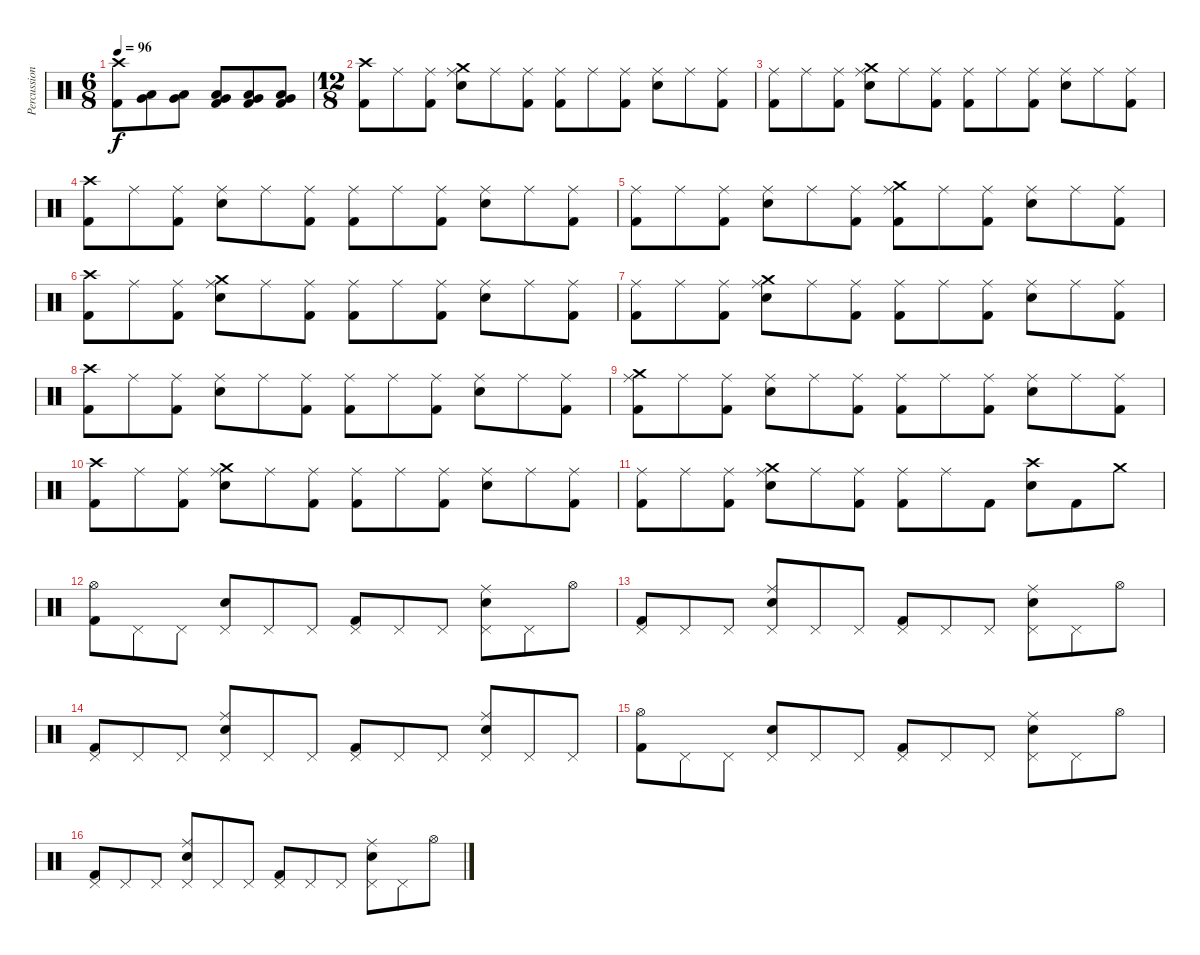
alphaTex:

\track ("Percussion" "Percussion") {instrument percussion}
\staff {score}
\articulation defaults
\ts (6 8)
\tempo 96
\clef neutral
\ks c
("Crash high (hit)" "Kick (hit) 2").8{dy f} ("Low Tom (hit)" "Very Low Tom (hit)").8 ("Low Tom (hit)" "Very Low Tom (hit)").8 ("Low Tom (hit)" "Very Low Tom (hit)" "Kick (hit) 2").8 ("Very Low Tom (hit)" "Low Floor Tom (hit)" "Kick (hit) 2").8 ("Very Low Tom (hit)" "Low Floor Tom (hit)" "Kick (hit) 2").8 |
\ts (12 8)
("Crash high (hit)" "Kick (hit) 2").8 "Ride (middle)".8 ("Ride (middle)" "Kick (hit) 2").8 ("Crash medium (hit)" "Ride (middle)" "Electric Snare (hit)").8 "Ride (middle)".8 ("Ride (middle)" "Kick (hit) 2").8 ("Ride (middle)" "Kick (hit) 2").8 "Ride (middle)".8 ("Ride (middle)" "Kick (hit) 2").8 ("Ride (middle)" "Electric Snare (hit)").8 "Ride (middle)".8 ("Ride (middle)" "Kick (hit) 2").8 |
("Ride (middle)" "Kick (hit) 2").8 "Ride (middle)".8 ("Ride (middle)" "Kick (hit) 2").8 ("Crash medium (hit)" "Ride (middle)" "Electric Snare (hit)").8 "Ride (middle)".8 ("Ride (middle)" "Kick (hit) 2").8 ("Ride (middle)" "Kick (hit) 2").8 "Ride (middle)".8 ("Ride (middle)" "Kick (hit) 2").8 ("Ride (middle)" "Electric Snare (hit)").8 "Ride (middle)".8 ("Ride (middle)" "Kick (hit) 2").8 |
("Crash high (hit)" "Kick (hit) 2").8 "Ride (middle)".8 ("Ride (middle)" "Kick (hit) 2").8 ("Ride (middle)" "Electric Snare (hit)").8 "Ride (middle)".8 ("Ride (middle)" "Kick (hit) 2").8 ("Ride (middle)" "Kick (hit) 2").8 "Ride (middle)".8 ("Ride (middle)" "Kick (hit) 2").8 ("Ride (middle)" "Electric Snare (hit)").8 "Ride (middle)".8 ("Ride (middle)" "Kick (hit) 2").8 |
("Ride (middle)" "Kick (hit) 2").8 "Ride (middle)".8 ("Ride (middle)" "Kick (hit) 2").8 ("Ride (middle)" "Electric Snare (hit)").8 "Ride (middle)".8 ("Ride (middle)" "Kick (hit) 2").8 ("Crash medium (hit)" "Ride (middle)" "Kick (hit) 2").8 "Ride (middle)".8 ("Ride (middle)" "Kick (hit) 2").8 ("Ride (middle)" "Electric Snare (hit)").8 "Ride (middle)".8 ("Ride (middle)" "Kick (hit) 2").8 |
("Crash high (hit)" "Kick (hit) 2").8 "Ride (middle)".8 ("Ride (middle)" "Kick (hit) 2").8 ("Crash medium (hit)" "Ride (middle)" "Electric Snare (hit)").8 "Ride (middle)".8 ("Ride (middle)" "Kick (hit) 2").8 ("Ride (middle)" "Kick (hit) 2").8 "Ride (middle)".8 ("Ride (middle)" "Kick (hit) 2").8 ("Ride (middle)" "Electric Snare (hit)").8 "Ride (middle)".8 ("Ride (middle)" "Kick (hit) 2").8 |
("Ride (middle)" "Kick (hit) 2").8 "Ride (middle)".8 ("Ride (middle)" "Kick (hit) 2").8 ("Crash medium (hit)" "Ride (middle)" "Electric Snare (hit)").8 "Ride (middle)".8 ("Ride (middle)" "Kick (hit) 2").8 ("Ride (middle)" "Kick (hit) 2").8 "Ride (middle)".8 ("Ride (middle)" "Kick (hit) 2").8 ("Ride (middle)" "Electric Snare (hit)").8 "Ride (middle)".8 ("Ride (middle)" "Kick (hit) 2").8 |
("Crash high (hit)" "Kick (hit) 2").8 "Ride (middle)".8 ("Ride (middle)" "Kick (hit) 2").8 ("Ride (middle)" "Electric Snare (hit)").8 "Ride (middle)".8 ("Ride (middle)" "Kick (hit) 2").8 ("Ride (middle)" "Kick (hit) 2").8 "Ride (middle)".8 ("Ride (middle)" "Kick (hit) 2").8 ("Ride (middle)" "Electric Snare (hit)").8 "Ride (middle)".8 ("Ride (middle)" "Kick (hit) 2").8 |
("Crash medium (hit)" "Ride (middle)" "Kick (hit) 2").8 "Ride (middle)".8 ("Ride (middle)" "Kick (hit) 2").8 ("Ride (middle)" "Electric Snare (hit)").8 "Ride (middle)".8 ("Ride (middle)" "Kick (hit) 2").8 ("Ride (middle)" "Kick (hit) 2").8 "Ride (middle)".8 ("Ride (middle)" "Kick (hit) 2").8 ("Ride (middle)" "Electric Snare (hit)").8 "Ride (middle)".8 ("Ride (middle)" "Kick (hit) 2").8 |
("Crash high (hit)" "Kick (hit) 2").8 "Ride (middle)".8 ("Ride (middle)" "Kick (hit) 2").8 ("Crash medium (hit)" "Ride (middle)" "Electric Snare (hit)").8 "Ride (middle)".8 ("Ride (middle)" "Kick (hit) 2").8 ("Ride (middle)" "Kick (hit) 2").8 "Ride (middle)".8 ("Ride (middle)" "Kick (hit) 2").8 ("Ride (middle)" "Electric Snare (hit)").8 "Ride (middle)".8 ("Ride (middle)" "Kick (hit) 2").8 |
("Ride (middle)" "Kick (hit) 2").8 "Ride (middle)".8 ("Ride (middle)" "Kick (hit) 2").8 ("Crash medium (hit)" "Ride (middle)" "Electric Snare (hit)").8 "Ride (middle)".8 ("Ride (middle)" "Kick (hit) 2").8 ("Ride (middle)" "Kick (hit) 2").8 "Ride (middle)".8 "Kick (hit) 2".8 ("Crash high (hit)" "Electric Snare (hit)").8 "Kick (hit) 2".8 "Crash medium (hit)".8 |
("Hi-Hat (open)" "Kick (hit) 2").8 "Pedal Hi-Hat (hit)".8 "Pedal Hi-Hat (hit)".8 ("Pedal Hi-Hat (hit)" "Electric Snare (hit)").8 "Pedal Hi-Hat (hit)".8 "Pedal Hi-Hat (hit)".8 ("Pedal Hi-Hat (hit)" "Kick (hit) 2").8 "Pedal Hi-Hat (hit)".8 "Pedal Hi-Hat (hit)".8 ("Pedal Hi-Hat (hit)" "Ride (middle)" "Electric Snare (hit)").8 "Pedal Hi-Hat (hit)".8 "Hi-Hat (open)".8 |
("Pedal Hi-Hat (hit)" "Kick (hit) 2").8 "Pedal Hi-Hat (hit)".8 "Pedal Hi-Hat (hit)".8 ("Pedal Hi-Hat (hit)" "Ride (middle)" "Electric Snare (hit)").8 "Pedal Hi-Hat (hit)".8 "Pedal Hi-Hat (hit)".8 ("Pedal Hi-Hat (hit)" "Kick (hit) 2").8 "Pedal Hi-Hat (hit)".8 "Pedal Hi-Hat (hit)".8 ("Pedal Hi-Hat (hit)" "Ride (middle)" "Electric Snare (hit)").8 "Pedal Hi-Hat (hit)".8 "Hi-Hat (open)".8 |
("Pedal Hi-Hat (hit)" "Kick (hit) 2").8 "Pedal Hi-Hat (hit)".8 "Pedal Hi-Hat (hit)".8 ("Pedal Hi-Hat (hit)" "Ride (middle)" "Electric Snare (hit)").8 "Pedal Hi-Hat (hit)".8 "Pedal Hi-Hat (hit)".8 ("Pedal Hi-Hat (hit)" "Kick (hit) 2").8 "Pedal Hi-Hat (hit)".8 "Pedal Hi-Hat (hit)".8 ("Pedal Hi-Hat (hit)" "Ride (middle)" "Electric Snare (hit)").8 "Pedal Hi-Hat (hit)".8 "Pedal Hi-Hat (hit)".8 |
("Hi-Hat (open)" "Kick (hit) 2").8 "Pedal Hi-Hat (hit)".8 "Pedal Hi-Hat (hit)".8 ("Pedal Hi-Hat (hit)" "Electric Snare (hit)").8 "Pedal Hi-Hat (hit)".8 "Pedal Hi-Hat (hit)".8 ("Pedal Hi-Hat (hit)" "Kick (hit) 2").8 "Pedal Hi-Hat (hit)".8 "Pedal Hi-Hat (hit)".8 ("Pedal Hi-Hat (hit)" "Ride (middle)" "Electric Snare (hit)").8 "Pedal Hi-Hat (hit)".8 "Hi-Hat (open)".8 |
("Pedal Hi-Hat (hit)" "Kick (hit) 2").8 "Pedal Hi-Hat (hit)".8 "Pedal Hi-Hat (hit)".8 ("Pedal Hi-Hat (hit)" "Ride (middle)" "Electric Snare (hit)").8 "Pedal Hi-Hat (hit)".8 "Pedal Hi-Hat (hit)".8 ("Pedal Hi-Hat (hit)" "Kick (hit) 2").8 "Pedal Hi-Hat (hit)".8 "Pedal Hi-Hat (hit)".8 ("Pedal Hi-Hat (hit)" "Ride (middle)" "Electric Snare (hit)").8 "Pedal Hi-Hat (hit)".8 "Hi-Hat (open)".8
